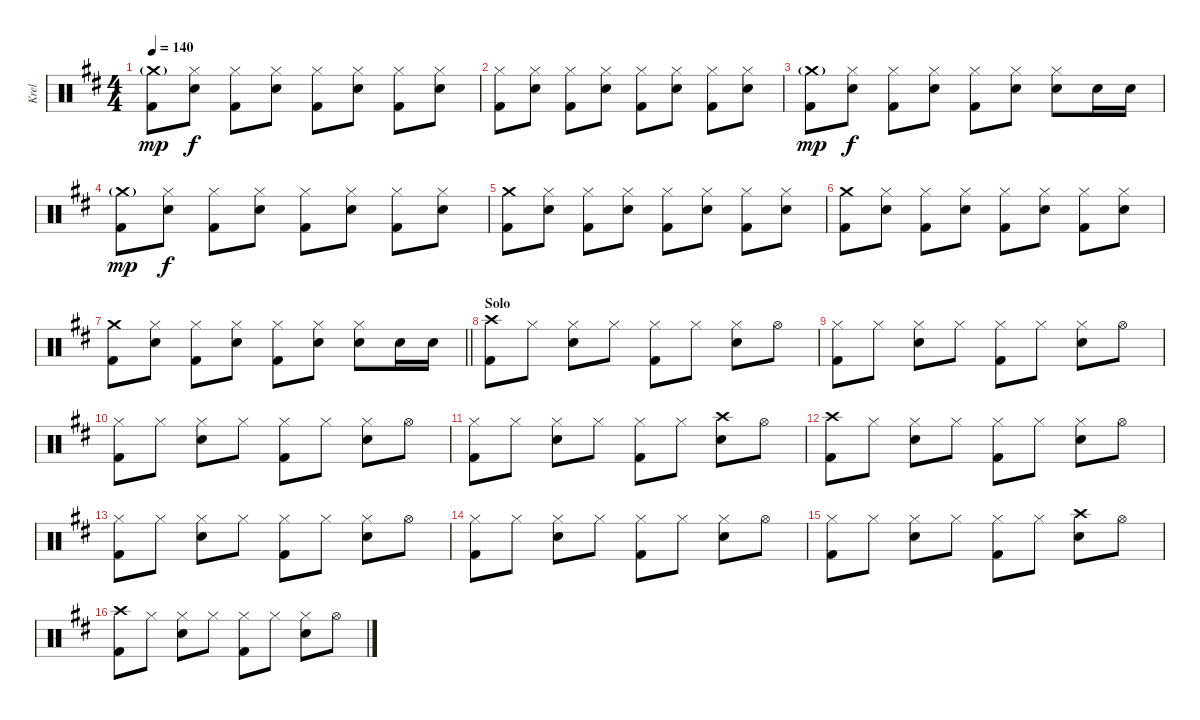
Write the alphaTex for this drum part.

\track ("Krel" "Krel") {instrument percussion}
\staff {score}
\articulation defaults
\ts (4 4)
\tempo 140
\clef neutral
\ks d
("Crash medium (hit)"{g} "Kick (hit) 2").8{dy mp} ("Hi-Hat (closed)" "Snare (hit) 2").8{dy f} ("Hi-Hat (closed)" "Kick (hit) 2").8 ("Hi-Hat (closed)" "Snare (hit) 2").8 ("Hi-Hat (closed)" "Kick (hit) 2").8 ("Hi-Hat (closed)" "Snare (hit) 2").8 ("Hi-Hat (closed)" "Kick (hit) 2").8 ("Hi-Hat (closed)" "Snare (hit) 2").8 |
("Hi-Hat (closed)" "Kick (hit) 2").8 ("Hi-Hat (closed)" "Snare (hit) 2").8 ("Hi-Hat (closed)" "Kick (hit) 2").8 ("Hi-Hat (closed)" "Snare (hit) 2").8 ("Hi-Hat (closed)" "Kick (hit) 2").8 ("Hi-Hat (closed)" "Snare (hit) 2").8 ("Hi-Hat (closed)" "Kick (hit) 2").8 ("Hi-Hat (closed)" "Snare (hit) 2").8 |
("Crash medium (hit)"{g} "Kick (hit) 2").8{dy mp} ("Hi-Hat (closed)" "Snare (hit) 2").8{dy f} ("Hi-Hat (closed)" "Kick (hit) 2").8 ("Hi-Hat (closed)" "Snare (hit) 2").8 ("Hi-Hat (closed)" "Kick (hit) 2").8 ("Hi-Hat (closed)" "Snare (hit) 2").8 ("Hi-Hat (closed)" "Snare (hit) 2").8 "Snare (hit) 2".16 "Snare (hit) 2".16 |
("Crash medium (hit)"{g} "Kick (hit) 2").8{dy mp} ("Hi-Hat (closed)" "Snare (hit) 2").8{dy f} ("Hi-Hat (closed)" "Kick (hit) 2").8 ("Hi-Hat (closed)" "Snare (hit) 2").8 ("Hi-Hat (closed)" "Kick (hit) 2").8 ("Hi-Hat (closed)" "Snare (hit) 2").8 ("Hi-Hat (closed)" "Kick (hit) 2").8 ("Hi-Hat (closed)" "Snare (hit) 2").8 |
("Crash medium (hit)" "Kick (hit) 2").8 ("Hi-Hat (closed)" "Snare (hit) 2").8 ("Hi-Hat (closed)" "Kick (hit) 2").8 ("Hi-Hat (closed)" "Snare (hit) 2").8 ("Hi-Hat (closed)" "Kick (hit) 2").8 ("Hi-Hat (closed)" "Snare (hit) 2").8 ("Hi-Hat (closed)" "Kick (hit) 2").8 ("Hi-Hat (closed)" "Snare (hit) 2").8 |
("Crash medium (hit)" "Kick (hit) 2").8 ("Hi-Hat (closed)" "Snare (hit) 2").8 ("Hi-Hat (closed)" "Kick (hit) 2").8 ("Hi-Hat (closed)" "Snare (hit) 2").8 ("Hi-Hat (closed)" "Kick (hit) 2").8 ("Hi-Hat (closed)" "Snare (hit) 2").8 ("Hi-Hat (closed)" "Kick (hit) 2").8 ("Hi-Hat (closed)" "Snare (hit) 2").8 |
\barLineRight lightlight
("Crash medium (hit)" "Kick (hit) 2").8 ("Hi-Hat (closed)" "Snare (hit) 2").8 ("Hi-Hat (closed)" "Kick (hit) 2").8 ("Hi-Hat (closed)" "Snare (hit) 2").8 ("Hi-Hat (closed)" "Kick (hit) 2").8 ("Hi-Hat (closed)" "Snare (hit) 2").8 ("Hi-Hat (closed)" "Snare (hit) 2").8 "Snare (hit) 2".16 "Snare (hit) 2".16 |
\section ("" "Solo")
("Crash high (hit)" "Kick (hit) 2").8 "Hi-Hat (closed)".8 ("Hi-Hat (closed)" "Snare (hit) 2").8 "Hi-Hat (closed)".8 ("Hi-Hat (closed)" "Kick (hit) 2").8 "Hi-Hat (closed)".8 ("Hi-Hat (closed)" "Snare (hit) 2").8 "Hi-Hat (open)".8 |
("Hi-Hat (closed)" "Kick (hit) 2").8 "Hi-Hat (closed)".8 ("Hi-Hat (closed)" "Snare (hit) 2").8 "Hi-Hat (closed)".8 ("Hi-Hat (closed)" "Kick (hit) 2").8 "Hi-Hat (closed)".8 ("Hi-Hat (closed)" "Snare (hit) 2").8 "Hi-Hat (open)".8 |
("Hi-Hat (closed)" "Kick (hit) 2").8 "Hi-Hat (closed)".8 ("Hi-Hat (closed)" "Snare (hit) 2").8 "Hi-Hat (closed)".8 ("Hi-Hat (closed)" "Kick (hit) 2").8 "Hi-Hat (closed)".8 ("Hi-Hat (closed)" "Snare (hit) 2").8 "Hi-Hat (open)".8 |
("Hi-Hat (closed)" "Kick (hit) 2").8 "Hi-Hat (closed)".8 ("Hi-Hat (closed)" "Snare (hit) 2").8 "Hi-Hat (closed)".8 ("Hi-Hat (closed)" "Kick (hit) 2").8 "Hi-Hat (closed)".8 ("Crash high (hit)" "Snare (hit) 2").8 "Hi-Hat (open)".8 |
("Crash high (hit)" "Kick (hit) 2").8 "Hi-Hat (closed)".8 ("Hi-Hat (closed)" "Snare (hit) 2").8 "Hi-Hat (closed)".8 ("Hi-Hat (closed)" "Kick (hit) 2").8 "Hi-Hat (closed)".8 ("Hi-Hat (closed)" "Snare (hit) 2").8 "Hi-Hat (open)".8 |
("Hi-Hat (closed)" "Kick (hit) 2").8 "Hi-Hat (closed)".8 ("Hi-Hat (closed)" "Snare (hit) 2").8 "Hi-Hat (closed)".8 ("Hi-Hat (closed)" "Kick (hit) 2").8 "Hi-Hat (closed)".8 ("Hi-Hat (closed)" "Snare (hit) 2").8 "Hi-Hat (open)".8 |
("Hi-Hat (closed)" "Kick (hit) 2").8 "Hi-Hat (closed)".8 ("Hi-Hat (closed)" "Snare (hit) 2").8 "Hi-Hat (closed)".8 ("Hi-Hat (closed)" "Kick (hit) 2").8 "Hi-Hat (closed)".8 ("Hi-Hat (closed)" "Snare (hit) 2").8 "Hi-Hat (open)".8 |
("Hi-Hat (closed)" "Kick (hit) 2").8 "Hi-Hat (closed)".8 ("Hi-Hat (closed)" "Snare (hit) 2").8 "Hi-Hat (closed)".8 ("Hi-Hat (closed)" "Kick (hit) 2").8 "Hi-Hat (closed)".8 ("Crash high (hit)" "Snare (hit) 2").8 "Hi-Hat (open)".8 |
("Crash high (hit)" "Kick (hit) 2").8 "Hi-Hat (closed)".8 ("Hi-Hat (closed)" "Snare (hit) 2").8 "Hi-Hat (closed)".8 ("Hi-Hat (closed)" "Kick (hit) 2").8 "Hi-Hat (closed)".8 ("Hi-Hat (closed)" "Snare (hit) 2").8 "Hi-Hat (open)".8
